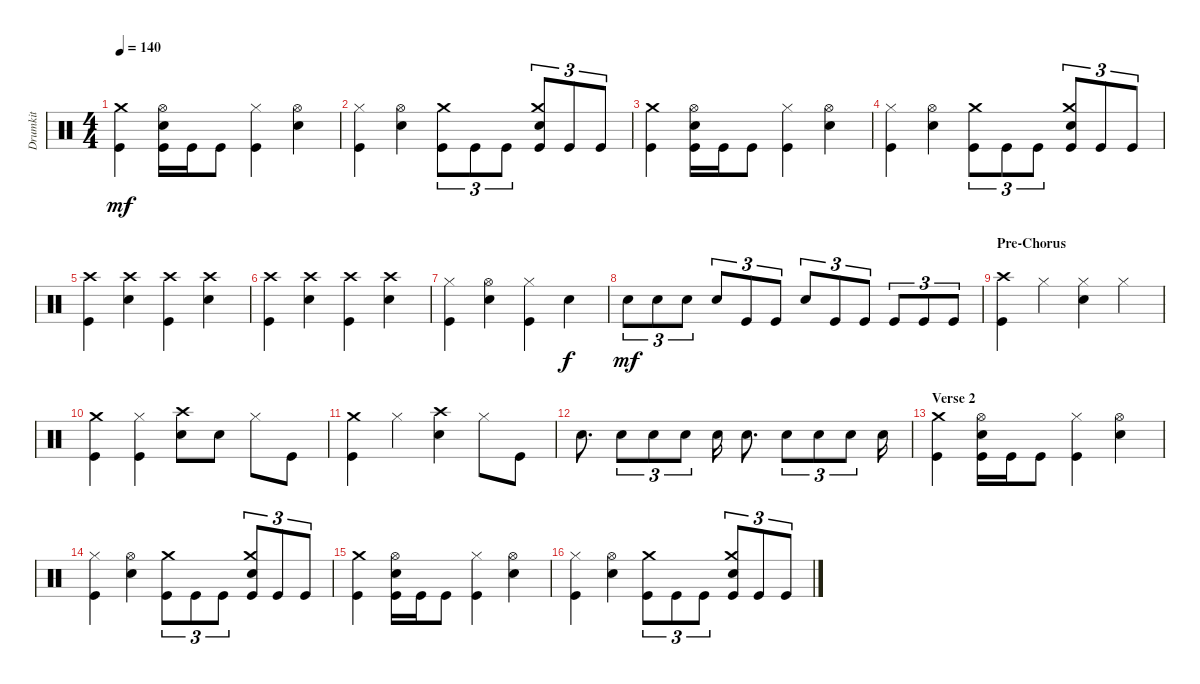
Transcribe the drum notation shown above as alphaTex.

\track ("Drumkit" "Drumkit") {instrument percussion}
\staff {score}
\articulation defaults
\ts (4 4)
\tempo 140
\clef neutral
\ks c
("Kick (hit)" "Crash medium (hit)").4{dy mf} ("Snare (hit) 2" "Kick (hit)" "Hi-Hat (open)").16 "Kick (hit)".16 "Kick (hit)".8 ("Kick (hit)" "Hi-Hat (closed)").4 ("Snare (hit) 2" "Hi-Hat (open)").4 |
("Kick (hit)" "Hi-Hat (closed)").4 ("Snare (hit) 2" "Hi-Hat (open)").4 ("Kick (hit)" "Crash medium (hit)").8{tu (3 2)} "Kick (hit)".8{tu (3 2)} "Kick (hit)".8{tu (3 2)} ("Kick (hit)" "Snare (hit) 2" "Crash medium (hit)").8{tu (3 2)} "Kick (hit)".8{tu (3 2)} "Kick (hit)".8{tu (3 2)} |
("Kick (hit)" "Crash medium (hit)").4 ("Snare (hit) 2" "Kick (hit)" "Hi-Hat (open)").16 "Kick (hit)".16 "Kick (hit)".8 ("Kick (hit)" "Hi-Hat (closed)").4 ("Snare (hit) 2" "Hi-Hat (open)").4 |
("Kick (hit)" "Hi-Hat (closed)").4 ("Snare (hit) 2" "Hi-Hat (open)").4 ("Kick (hit)" "Crash medium (hit)").8{tu (3 2)} "Kick (hit)".8{tu (3 2)} "Kick (hit)".8{tu (3 2)} ("Kick (hit)" "Snare (hit) 2" "Crash medium (hit)").8{tu (3 2)} "Kick (hit)".8{tu (3 2)} "Kick (hit)".8{tu (3 2)} |
("Kick (hit)" "Crash high (hit)").4 ("Snare (hit) 2" "Crash high (hit)").4 ("Kick (hit)" "Crash high (hit)").4 ("Snare (hit) 2" "Crash high (hit)").4 |
("Kick (hit)" "Crash high (hit)").4 ("Snare (hit) 2" "Crash high (hit)").4 ("Kick (hit)" "Crash high (hit)").4 ("Snare (hit) 2" "Crash high (hit)").4 |
("Kick (hit)" "Hi-Hat (closed)").4 ("Snare (hit) 2" "Hi-Hat (open)").4 ("Kick (hit)" "Hi-Hat (closed)").4 "Snare (hit) 2".4{dy f} |
"Snare (hit) 2".8{tu (3 2) dy mf} "Snare (hit) 2".8{tu (3 2)} "Snare (hit) 2".8{tu (3 2)} "Snare (hit) 2".8{tu (3 2)} "Kick (hit)".8{tu (3 2)} "Kick (hit)".8{tu (3 2)} "Snare (hit) 2".8{tu (3 2)} "Kick (hit)".8{tu (3 2)} "Kick (hit)".8{tu (3 2)} "Kick (hit)".8{tu (3 2)} "Kick (hit)".8{tu (3 2)} "Kick (hit)".8{tu (3 2)} |
\section ("" "Pre-Chorus")
("Kick (hit)" "Crash high (hit)").4 "Hi-Hat (closed)".4 ("Snare (hit) 2" "Hi-Hat (closed)").4 "Hi-Hat (closed)".4 |
("Kick (hit)" "Crash medium (hit)").4 ("Kick (hit)" "Hi-Hat (closed)").4 ("Snare (hit) 2" "Crash high (hit)").8 "Snare (hit) 2".8 "Hi-Hat (closed)".8 "Kick (hit)".8 |
("Kick (hit)" "Crash medium (hit)").4 "Hi-Hat (closed)".4 ("Snare (hit) 2" "Crash high (hit)").4 "Hi-Hat (closed)".8 "Kick (hit)".8 |
"Snare (hit) 2".8{d} "Snare (hit) 2".8{tu (3 2)} "Snare (hit) 2".8{tu (3 2)} "Snare (hit) 2".8{tu (3 2)} "Snare (hit) 2".16 "Snare (hit) 2".8{d} "Snare (hit) 2".8{tu (3 2)} "Snare (hit) 2".8{tu (3 2)} "Snare (hit) 2".8{tu (3 2)} "Snare (hit) 2".16 |
\section ("" "Verse 2")
("Kick (hit)" "Crash medium (hit)").4 ("Snare (hit) 2" "Kick (hit)" "Hi-Hat (open)").16 "Kick (hit)".16 "Kick (hit)".8 ("Kick (hit)" "Hi-Hat (closed)").4 ("Snare (hit) 2" "Hi-Hat (open)").4 |
("Kick (hit)" "Hi-Hat (closed)").4 ("Snare (hit) 2" "Hi-Hat (open)").4 ("Kick (hit)" "Crash medium (hit)").8{tu (3 2)} "Kick (hit)".8{tu (3 2)} "Kick (hit)".8{tu (3 2)} ("Kick (hit)" "Snare (hit) 2" "Crash medium (hit)").8{tu (3 2)} "Kick (hit)".8{tu (3 2)} "Kick (hit)".8{tu (3 2)} |
("Kick (hit)" "Crash medium (hit)").4 ("Snare (hit) 2" "Kick (hit)" "Hi-Hat (open)").16 "Kick (hit)".16 "Kick (hit)".8 ("Kick (hit)" "Hi-Hat (closed)").4 ("Snare (hit) 2" "Hi-Hat (open)").4 |
("Kick (hit)" "Hi-Hat (closed)").4 ("Snare (hit) 2" "Hi-Hat (open)").4 ("Kick (hit)" "Crash medium (hit)").8{tu (3 2)} "Kick (hit)".8{tu (3 2)} "Kick (hit)".8{tu (3 2)} ("Kick (hit)" "Snare (hit) 2" "Crash medium (hit)").8{tu (3 2)} "Kick (hit)".8{tu (3 2)} "Kick (hit)".8{tu (3 2)}
